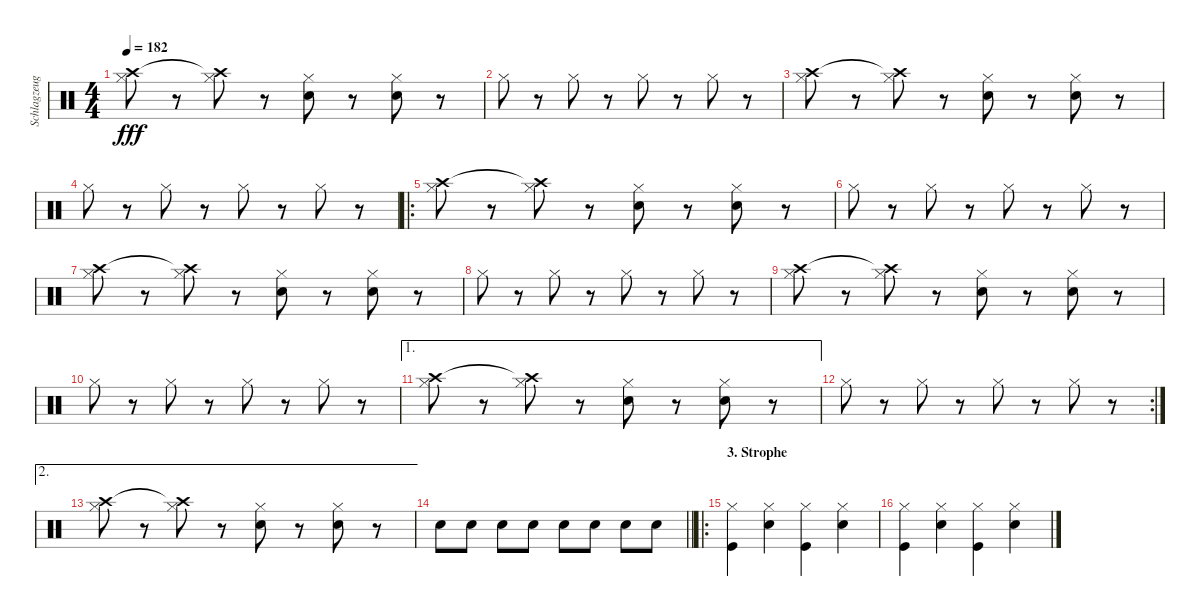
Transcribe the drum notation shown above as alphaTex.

\track ("Schlagzeug" "Schlagzeug") {instrument percussion}
\staff {score}
\articulation defaults
\ts (4 4)
\tempo 182
\clef neutral
\ks c
("Crash high (hit)" "Hi-Hat (closed)").8{dy fff} r.8 ("Crash high (hit)"{t} "Hi-Hat (closed)").8 r.8 ("Hi-Hat (closed)" "Snare (hit) 2").8 r.8 ("Hi-Hat (closed)" "Snare (hit) 2").8 r.8 |
"Hi-Hat (closed)".8 r.8 "Hi-Hat (closed)".8 r.8 "Hi-Hat (closed)".8 r.8 "Hi-Hat (closed)".8 r.8 |
("Crash high (hit)" "Hi-Hat (closed)").8 r.8 ("Crash high (hit)"{t} "Hi-Hat (closed)").8 r.8 ("Hi-Hat (closed)" "Snare (hit) 2").8 r.8 ("Hi-Hat (closed)" "Snare (hit) 2").8 r.8 |
"Hi-Hat (closed)".8 r.8 "Hi-Hat (closed)".8 r.8 "Hi-Hat (closed)".8 r.8 "Hi-Hat (closed)".8 r.8 |
\ro
("Crash high (hit)" "Hi-Hat (closed)").8 r.8 ("Crash high (hit)"{t} "Hi-Hat (closed)").8 r.8 ("Hi-Hat (closed)" "Snare (hit) 2").8 r.8 ("Hi-Hat (closed)" "Snare (hit) 2").8 r.8 |
"Hi-Hat (closed)".8 r.8 "Hi-Hat (closed)".8 r.8 "Hi-Hat (closed)".8 r.8 "Hi-Hat (closed)".8 r.8 |
("Crash high (hit)" "Hi-Hat (closed)").8 r.8 ("Crash high (hit)"{t} "Hi-Hat (closed)").8 r.8 ("Hi-Hat (closed)" "Snare (hit) 2").8 r.8 ("Hi-Hat (closed)" "Snare (hit) 2").8 r.8 |
"Hi-Hat (closed)".8 r.8 "Hi-Hat (closed)".8 r.8 "Hi-Hat (closed)".8 r.8 "Hi-Hat (closed)".8 r.8 |
("Crash high (hit)" "Hi-Hat (closed)").8 r.8 ("Crash high (hit)"{t} "Hi-Hat (closed)").8 r.8 ("Hi-Hat (closed)" "Snare (hit) 2").8 r.8 ("Hi-Hat (closed)" "Snare (hit) 2").8 r.8 |
"Hi-Hat (closed)".8 r.8 "Hi-Hat (closed)".8 r.8 "Hi-Hat (closed)".8 r.8 "Hi-Hat (closed)".8 r.8 |
\ae 1
("Crash high (hit)" "Hi-Hat (closed)").8 r.8 ("Crash high (hit)"{t} "Hi-Hat (closed)").8 r.8 ("Hi-Hat (closed)" "Snare (hit) 2").8 r.8 ("Hi-Hat (closed)" "Snare (hit) 2").8 r.8 |
\rc 2 "Hi-Hat (closed)".8
r.8 "Hi-Hat (closed)".8 r.8 "Hi-Hat (closed)".8 r.8 "Hi-Hat (closed)".8 r.8 |
\ae 2
("Crash high (hit)" "Hi-Hat (closed)").8 r.8 ("Crash high (hit)"{t} "Hi-Hat (closed)").8 r.8 ("Hi-Hat (closed)" "Snare (hit) 2").8 r.8 ("Hi-Hat (closed)" "Snare (hit) 2").8 r.8 |
\barLineRight lightlight "Snare (hit) 2".8 "Snare (hit) 2".8 "Snare (hit) 2".8 "Snare (hit) 2".8 "Snare (hit) 2".8 "Snare (hit) 2".8 "Snare (hit) 2".8 "Snare (hit) 2".8
|
\ro
\section ("" "3. Strophe")
("Hi-Hat (closed)" "Kick (hit)").4 ("Hi-Hat (closed)" "Snare (hit) 2").4 ("Hi-Hat (closed)" "Kick (hit)").4 ("Hi-Hat (closed)" "Snare (hit) 2").4 |
("Hi-Hat (closed)" "Kick (hit)").4 ("Hi-Hat (closed)" "Snare (hit) 2").4 ("Hi-Hat (closed)" "Kick (hit)").4 ("Hi-Hat (closed)" "Snare (hit) 2").4
